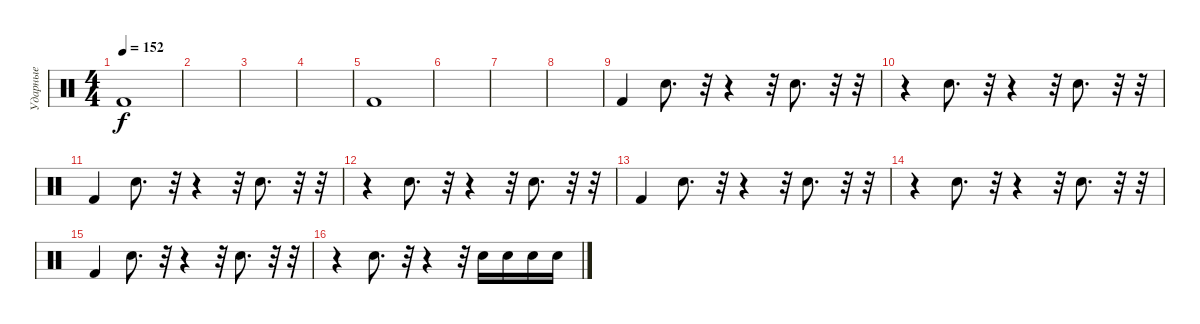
\track ("Ударные" "Ударные") {instrument percussion}
\staff {score}
\articulation defaults
\ts (4 4)
\tempo 152
\clef neutral
\ks c "Kick (hit) 2".1{dy f}
|
|
|
|
"Kick (hit) 2".1 |
|
|
|
"Kick (hit) 2".4 "Snare (hit) 2".8{d} r.32 r.4 r.32 "Snare (hit) 2".8{d} r.32 r.32 |
r.4 "Snare (hit) 2".8{d} r.32 r.4 r.32 "Snare (hit) 2".8{d} r.32 r.32 |
"Kick (hit) 2".4 "Snare (hit) 2".8{d} r.32 r.4 r.32 "Snare (hit) 2".8{d} r.32 r.32 |
r.4 "Snare (hit) 2".8{d} r.32 r.4 r.32 "Snare (hit) 2".8{d} r.32 r.32 |
"Kick (hit) 2".4 "Snare (hit) 2".8{d} r.32 r.4 r.32 "Snare (hit) 2".8{d} r.32 r.32 |
r.4 "Snare (hit) 2".8{d} r.32 r.4 r.32 "Snare (hit) 2".8{d} r.32 r.32 |
"Kick (hit) 2".4 "Snare (hit) 2".8{d} r.32 r.4 r.32 "Snare (hit) 2".8{d} r.32 r.32 |
r.4 "Snare (hit) 2".8{d} r.32 r.4 r.32 "Snare (hit) 2".16 "Snare (hit) 2".16 "Snare (hit) 2".16 "Snare (hit) 2".16
